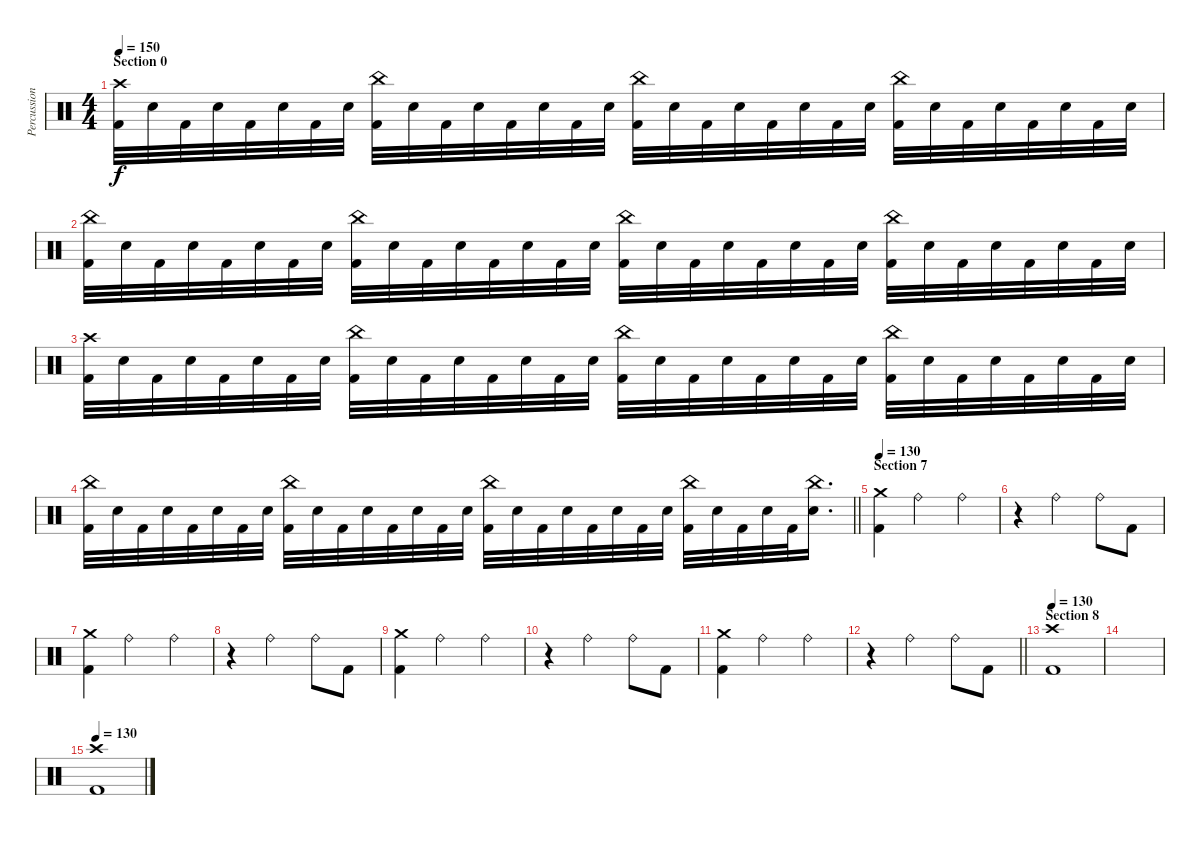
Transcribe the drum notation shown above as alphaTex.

\track ("Percussions" "Percussion") {instrument percussion}
\staff {score}
\articulation defaults
\ts (4 4)
\section ("" "Section 0")
\tempo 150
\clef neutral
\ks c
("Crash high (hit)" "Kick (hit) 2").32{dy f} "Electric Snare (hit)".32 "Kick (hit) 2".32 "Electric Snare (hit)".32 "Kick (hit) 2".32 "Electric Snare (hit)".32 "Kick (hit) 2".32 "Electric Snare (hit)".32 ("China (hit)" "Kick (hit) 2").32 "Electric Snare (hit)".32 "Kick (hit) 2".32 "Electric Snare (hit)".32 "Kick (hit) 2".32 "Electric Snare (hit)".32 "Kick (hit) 2".32 "Electric Snare (hit)".32 ("China (hit)" "Kick (hit) 2").32 "Electric Snare (hit)".32 "Kick (hit) 2".32 "Electric Snare (hit)".32 "Kick (hit) 2".32 "Electric Snare (hit)".32 "Kick (hit) 2".32 "Electric Snare (hit)".32 ("China (hit)" "Kick (hit) 2").32 "Electric Snare (hit)".32 "Kick (hit) 2".32 "Electric Snare (hit)".32 "Kick (hit) 2".32 "Electric Snare (hit)".32 "Kick (hit) 2".32 "Electric Snare (hit)".32 |
("China (hit)" "Kick (hit) 2").32 "Electric Snare (hit)".32 "Kick (hit) 2".32 "Electric Snare (hit)".32 "Kick (hit) 2".32 "Electric Snare (hit)".32 "Kick (hit) 2".32 "Electric Snare (hit)".32 ("China (hit)" "Kick (hit) 2").32 "Electric Snare (hit)".32 "Kick (hit) 2".32 "Electric Snare (hit)".32 "Kick (hit) 2".32 "Electric Snare (hit)".32 "Kick (hit) 2".32 "Electric Snare (hit)".32 ("China (hit)" "Kick (hit) 2").32 "Electric Snare (hit)".32 "Kick (hit) 2".32 "Electric Snare (hit)".32 "Kick (hit) 2".32 "Electric Snare (hit)".32 "Kick (hit) 2".32 "Electric Snare (hit)".32 ("China (hit)" "Kick (hit) 2").32 "Electric Snare (hit)".32 "Kick (hit) 2".32 "Electric Snare (hit)".32 "Kick (hit) 2".32 "Electric Snare (hit)".32 "Kick (hit) 2".32 "Electric Snare (hit)".32 |
("Crash high (hit)" "Kick (hit) 2").32 "Electric Snare (hit)".32 "Kick (hit) 2".32 "Electric Snare (hit)".32 "Kick (hit) 2".32 "Electric Snare (hit)".32 "Kick (hit) 2".32 "Electric Snare (hit)".32 ("China (hit)" "Kick (hit) 2").32 "Electric Snare (hit)".32 "Kick (hit) 2".32 "Electric Snare (hit)".32 "Kick (hit) 2".32 "Electric Snare (hit)".32 "Kick (hit) 2".32 "Electric Snare (hit)".32 ("China (hit)" "Kick (hit) 2").32 "Electric Snare (hit)".32 "Kick (hit) 2".32 "Electric Snare (hit)".32 "Kick (hit) 2".32 "Electric Snare (hit)".32 "Kick (hit) 2".32 "Electric Snare (hit)".32 ("China (hit)" "Kick (hit) 2").32 "Electric Snare (hit)".32 "Kick (hit) 2".32 "Electric Snare (hit)".32 "Kick (hit) 2".32 "Electric Snare (hit)".32 "Kick (hit) 2".32 "Electric Snare (hit)".32 |
\barLineRight lightlight
("China (hit)" "Kick (hit) 2").32 "Electric Snare (hit)".32 "Kick (hit) 2".32 "Electric Snare (hit)".32 "Kick (hit) 2".32 "Electric Snare (hit)".32 "Kick (hit) 2".32 "Electric Snare (hit)".32 ("China (hit)" "Kick (hit) 2").32 "Electric Snare (hit)".32 "Kick (hit) 2".32 "Electric Snare (hit)".32 "Kick (hit) 2".32 "Electric Snare (hit)".32 "Kick (hit) 2".32 "Electric Snare (hit)".32 ("China (hit)" "Kick (hit) 2").32 "Electric Snare (hit)".32 "Kick (hit) 2".32 "Electric Snare (hit)".32 "Kick (hit) 2".32 "Electric Snare (hit)".32 "Kick (hit) 2".32 "Electric Snare (hit)".32 ("China (hit)" "Kick (hit) 2").32 "Electric Snare (hit)".32 "Kick (hit) 2".32 "Electric Snare (hit)".32 "Kick (hit) 2".32 ("China (hit)" "Electric Snare (hit)").16{d} |
\section ("" "Section 7")
\tempo 130
("Crash medium (hit)" "Kick (hit) 2").4 "Ride (bell)".2 "Ride (bell)".4 |
r.4 "Ride (bell)".2 "Ride (bell)".8 "Kick (hit) 2".8 |
("Crash medium (hit)" "Kick (hit) 2").4 "Ride (bell)".2 "Ride (bell)".4 |
r.4 "Ride (bell)".2 "Ride (bell)".8 "Kick (hit) 2".8 |
("Crash medium (hit)" "Kick (hit) 2").4 "Ride (bell)".2 "Ride (bell)".4 |
r.4 "Ride (bell)".2 "Ride (bell)".8 "Kick (hit) 2".8 |
("Crash medium (hit)" "Kick (hit) 2").4 "Ride (bell)".2 "Ride (bell)".4 |
\barLineRight lightlight
r.4 "Ride (bell)".2 "Ride (bell)".8 "Kick (hit) 2".8 |
\section ("" "Section 8")
\tempo 130
("Crash high (hit)" "Kick (hit) 2").1 |
|
\tempo 130
("Crash high (hit)" "Kick (hit) 2").1
